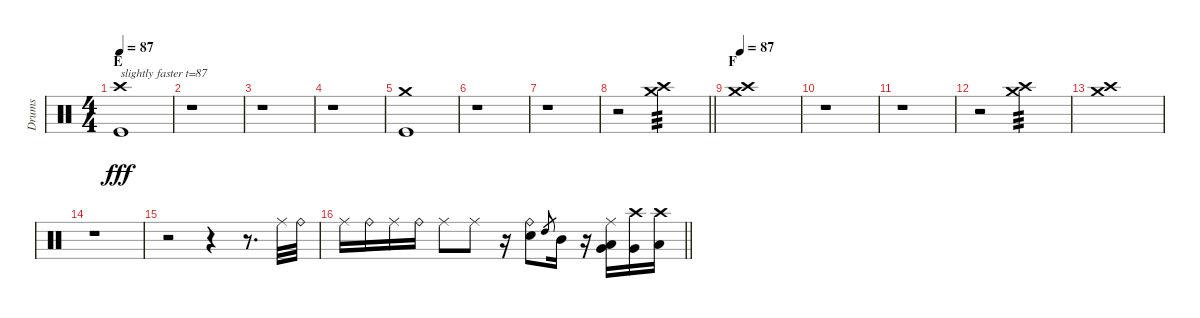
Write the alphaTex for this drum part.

\track ("Drums" "Drums") {instrument percussion}
\staff {score}
\articulation defaults
\ts (4 4)
\section ("" "E")
\tempo 87
\clef neutral
\ks c
("Crash high (hit)" "Kick (hit)").1{txt "slightly faster t=87" dy fff} |
r.1 |
r.1 |
r.1 |
("Crash medium (hit)" "Kick (hit)").1 |
r.1 |
r.1 |
\barLineRight lightlight
r.2 ("Crash high (hit)" "Crash medium (hit)").2{tp 3} |
\section ("" "F")
\tempo 87
("Crash high (hit)" "Crash medium (hit)").1 |
r.1 |
r.1 |
r.2 ("Crash high (hit)" "Crash medium (hit)").2{tp 3} |
("Crash high (hit)" "Crash medium (hit)").1 |
r.1 |
r.2 r.4 r.8{d} "Ride (middle)".32 "Ride (bell)".32 |
\barLineRight lightlight "Ride (middle)".16 "Ride (bell)".16 "Ride (middle)".16 "Ride (bell)".16 "Ride (middle)".8 "Ride (middle)".8
r.16 ("Ride (bell)" "Snare (hit) 2").8 "High Tom (hit)".8{gr} "Mid Tom (hit)".16 r.16 ("Ride (middle)" "Low Tom (hit)" "Very Low Tom (hit)").16 ("Crash high (hit)" "Very Low Tom (hit)").16 ("Crash high (hit)" "Low Floor Tom (hit)").16
